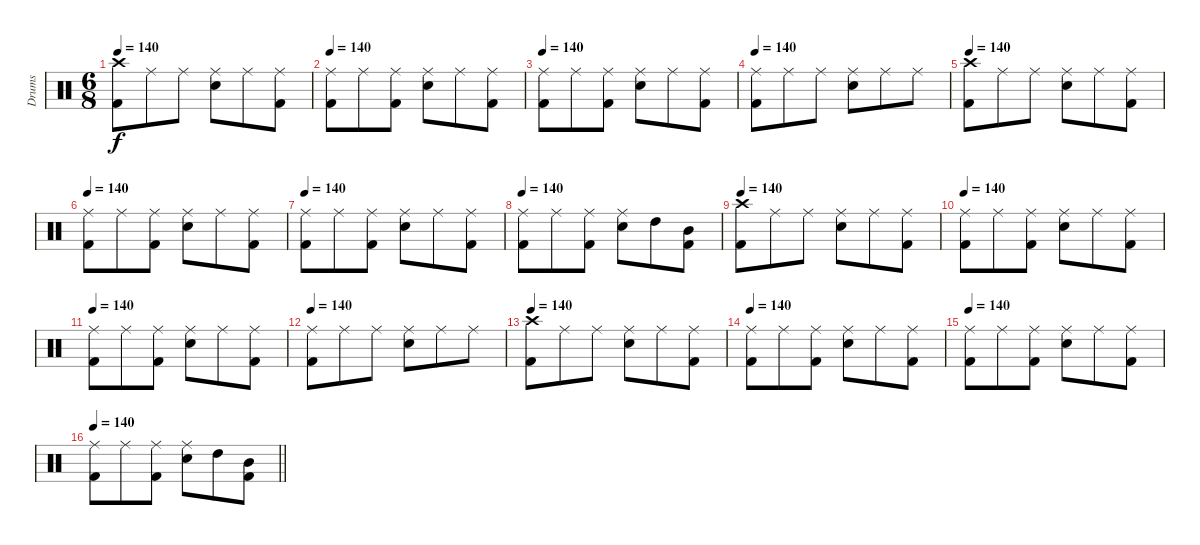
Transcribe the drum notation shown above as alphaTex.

\track ("Drums" "Drums") {instrument percussion}
\staff {score}
\articulation defaults
\ts (6 8)
\tempo 140
\clef neutral
\ks c
("Kick (hit) 2" "Crash high (hit)").8{dy f} "Ride (middle)".8 "Ride (middle)".8 ("Electric Snare (hit)" "Ride (middle)").8 "Ride (middle)".8 ("Kick (hit) 2" "Ride (middle)").8 |
\tempo 140
("Kick (hit) 2" "Ride (middle)").8 "Ride (middle)".8 ("Kick (hit) 2" "Ride (middle)").8 ("Electric Snare (hit)" "Ride (middle)").8 "Ride (middle)".8 ("Kick (hit) 2" "Ride (middle)").8 |
\tempo 140
("Kick (hit) 2" "Ride (middle)").8 "Ride (middle)".8 ("Kick (hit) 2" "Ride (middle)").8 ("Electric Snare (hit)" "Ride (middle)").8 "Ride (middle)".8 ("Kick (hit) 2" "Ride (middle)").8 |
\tempo 140
("Kick (hit) 2" "Ride (middle)").8 "Ride (middle)".8 "Ride (middle)".8 ("Electric Snare (hit)" "Ride (middle)").8 "Ride (middle)".8 "Ride (middle)".8 |
\tempo 140
("Kick (hit) 2" "Crash high (hit)").8 "Ride (middle)".8 "Ride (middle)".8 ("Electric Snare (hit)" "Ride (middle)").8 "Ride (middle)".8 ("Kick (hit) 2" "Ride (middle)").8 |
\tempo 140
("Kick (hit) 2" "Ride (middle)").8 "Ride (middle)".8 ("Kick (hit) 2" "Ride (middle)").8 ("Electric Snare (hit)" "Ride (middle)").8 "Ride (middle)".8 ("Kick (hit) 2" "Ride (middle)").8 |
\tempo 140
("Kick (hit) 2" "Ride (middle)").8 "Ride (middle)".8 ("Kick (hit) 2" "Ride (middle)").8 ("Electric Snare (hit)" "Ride (middle)").8 "Ride (middle)".8 ("Kick (hit) 2" "Ride (middle)").8 |
\tempo 140
("Kick (hit) 2" "Ride (middle)").8 "Ride (middle)".8 ("Kick (hit) 2" "Ride (middle)").8 ("Electric Snare (hit)" "Ride (middle)").8 "High Tom (hit)".8 ("Kick (hit) 2" "Mid Tom (hit)").8 |
\tempo 140
("Kick (hit) 2" "Crash high (hit)").8 "Ride (middle)".8 "Ride (middle)".8 ("Electric Snare (hit)" "Ride (middle)").8 "Ride (middle)".8 ("Kick (hit) 2" "Ride (middle)").8 |
\tempo 140
("Kick (hit) 2" "Ride (middle)").8 "Ride (middle)".8 ("Kick (hit) 2" "Ride (middle)").8 ("Electric Snare (hit)" "Ride (middle)").8 "Ride (middle)".8 ("Kick (hit) 2" "Ride (middle)").8 |
\tempo 140
("Kick (hit) 2" "Ride (middle)").8 "Ride (middle)".8 ("Kick (hit) 2" "Ride (middle)").8 ("Electric Snare (hit)" "Ride (middle)").8 "Ride (middle)".8 ("Kick (hit) 2" "Ride (middle)").8 |
\tempo 140
("Kick (hit) 2" "Ride (middle)").8 "Ride (middle)".8 "Ride (middle)".8 ("Electric Snare (hit)" "Ride (middle)").8 "Ride (middle)".8 "Ride (middle)".8 |
\tempo 140
("Kick (hit) 2" "Crash high (hit)").8 "Ride (middle)".8 "Ride (middle)".8 ("Electric Snare (hit)" "Ride (middle)").8 "Ride (middle)".8 ("Kick (hit) 2" "Ride (middle)").8 |
\tempo 140
("Kick (hit) 2" "Ride (middle)").8 "Ride (middle)".8 ("Kick (hit) 2" "Ride (middle)").8 ("Electric Snare (hit)" "Ride (middle)").8 "Ride (middle)".8 ("Kick (hit) 2" "Ride (middle)").8 |
\tempo 140
("Kick (hit) 2" "Ride (middle)").8 "Ride (middle)".8 ("Kick (hit) 2" "Ride (middle)").8 ("Electric Snare (hit)" "Ride (middle)").8 "Ride (middle)".8 ("Kick (hit) 2" "Ride (middle)").8 |
\tempo 140
\barLineRight lightlight
("Kick (hit) 2" "Ride (middle)").8 "Ride (middle)".8 ("Kick (hit) 2" "Ride (middle)").8 ("Electric Snare (hit)" "Ride (middle)").8 "High Tom (hit)".8 ("Kick (hit) 2" "Mid Tom (hit)").8
